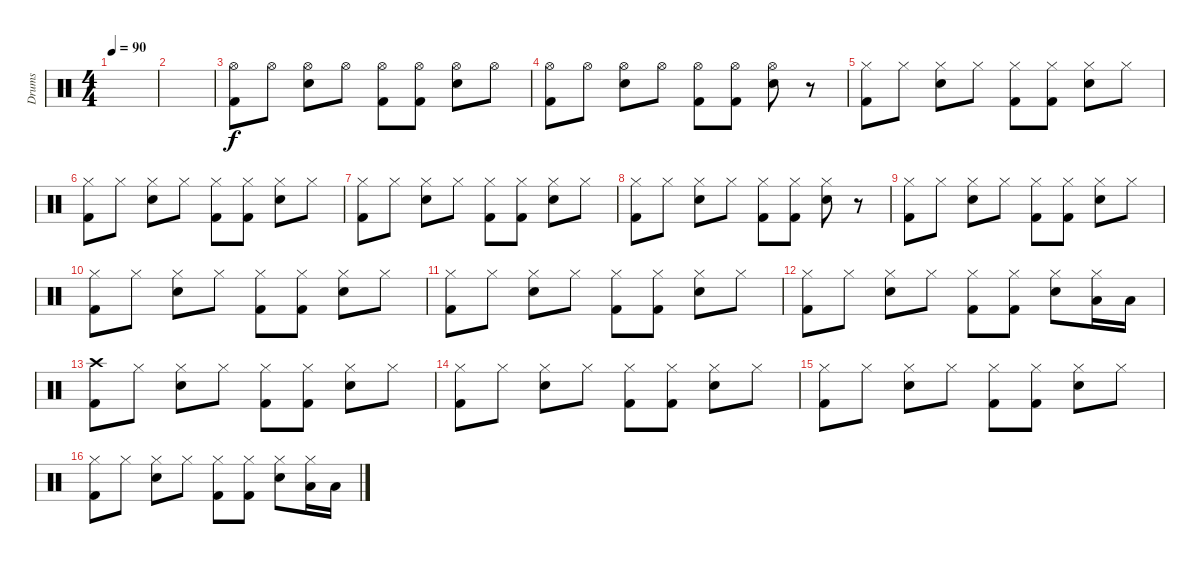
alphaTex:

\track ("Drums" "Drums") {instrument percussion}
\staff {score}
\articulation defaults
\ts (4 4)
\tempo 90
\clef neutral
\ks c
|
|
("Hi-Hat (open)" "Kick (hit) 2").8 "Hi-Hat (open)".8 ("Hi-Hat (open)" "Snare (hit) 2").8 "Hi-Hat (open)".8 ("Hi-Hat (open)" "Kick (hit) 2").8 ("Hi-Hat (open)" "Kick (hit) 2").8 ("Hi-Hat (open)" "Snare (hit) 2").8 "Hi-Hat (open)".8 |
("Hi-Hat (open)" "Kick (hit) 2").8 "Hi-Hat (open)".8 ("Hi-Hat (open)" "Snare (hit) 2").8 "Hi-Hat (open)".8 ("Hi-Hat (open)" "Kick (hit) 2").8 ("Hi-Hat (open)" "Kick (hit) 2").8 ("Hi-Hat (open)" "Snare (hit) 2").8 r.8 |
("Hi-Hat (closed)" "Kick (hit) 2").8 "Hi-Hat (closed)".8 ("Hi-Hat (closed)" "Snare (hit) 2").8 "Hi-Hat (closed)".8 ("Hi-Hat (closed)" "Kick (hit) 2").8 ("Hi-Hat (closed)" "Kick (hit) 2").8 ("Hi-Hat (closed)" "Snare (hit) 2").8 "Hi-Hat (closed)".8 |
("Hi-Hat (closed)" "Kick (hit) 2").8 "Hi-Hat (closed)".8 ("Hi-Hat (closed)" "Snare (hit) 2").8 "Hi-Hat (closed)".8 ("Hi-Hat (closed)" "Kick (hit) 2").8 ("Hi-Hat (closed)" "Kick (hit) 2").8 ("Hi-Hat (closed)" "Snare (hit) 2").8 "Hi-Hat (closed)".8 |
("Hi-Hat (closed)" "Kick (hit) 2").8 "Hi-Hat (closed)".8 ("Hi-Hat (closed)" "Snare (hit) 2").8 "Hi-Hat (closed)".8 ("Hi-Hat (closed)" "Kick (hit) 2").8 ("Hi-Hat (closed)" "Kick (hit) 2").8 ("Hi-Hat (closed)" "Snare (hit) 2").8 "Hi-Hat (closed)".8 |
("Hi-Hat (closed)" "Kick (hit) 2").8 "Hi-Hat (closed)".8 ("Hi-Hat (closed)" "Snare (hit) 2").8 "Hi-Hat (closed)".8 ("Hi-Hat (closed)" "Kick (hit) 2").8 ("Hi-Hat (closed)" "Kick (hit) 2").8 ("Hi-Hat (closed)" "Snare (hit) 2").8 r.8 |
("Hi-Hat (closed)" "Kick (hit) 2").8 "Hi-Hat (closed)".8 ("Hi-Hat (closed)" "Snare (hit) 2").8 "Hi-Hat (closed)".8 ("Hi-Hat (closed)" "Kick (hit) 2").8 ("Hi-Hat (closed)" "Kick (hit) 2").8 ("Hi-Hat (closed)" "Snare (hit) 2").8 "Hi-Hat (closed)".8 |
("Hi-Hat (closed)" "Kick (hit) 2").8 "Hi-Hat (closed)".8 ("Hi-Hat (closed)" "Snare (hit) 2").8 "Hi-Hat (closed)".8 ("Hi-Hat (closed)" "Kick (hit) 2").8 ("Hi-Hat (closed)" "Kick (hit) 2").8 ("Hi-Hat (closed)" "Snare (hit) 2").8 "Hi-Hat (closed)".8 |
("Hi-Hat (closed)" "Kick (hit) 2").8 "Hi-Hat (closed)".8 ("Hi-Hat (closed)" "Snare (hit) 2").8 "Hi-Hat (closed)".8 ("Hi-Hat (closed)" "Kick (hit) 2").8 ("Hi-Hat (closed)" "Kick (hit) 2").8 ("Hi-Hat (closed)" "Snare (hit) 2").8 "Hi-Hat (closed)".8 |
("Hi-Hat (closed)" "Kick (hit) 2").8 "Hi-Hat (closed)".8 ("Hi-Hat (closed)" "Snare (hit) 2").8 "Hi-Hat (closed)".8 ("Hi-Hat (closed)" "Kick (hit) 2").8 ("Hi-Hat (closed)" "Kick (hit) 2").8 ("Hi-Hat (closed)" "Snare (hit) 2").8 ("Hi-Hat (closed)" "Low Tom (hit)").16 "Low Tom (hit)".16 |
("Crash high (hit)" "Kick (hit) 2").8 "Hi-Hat (closed)".8 ("Hi-Hat (closed)" "Snare (hit) 2").8 "Hi-Hat (closed)".8 ("Hi-Hat (closed)" "Kick (hit) 2").8 ("Hi-Hat (closed)" "Kick (hit) 2").8 ("Hi-Hat (closed)" "Snare (hit) 2").8 "Hi-Hat (closed)".8 |
("Hi-Hat (closed)" "Kick (hit) 2").8 "Hi-Hat (closed)".8 ("Hi-Hat (closed)" "Snare (hit) 2").8 "Hi-Hat (closed)".8 ("Hi-Hat (closed)" "Kick (hit) 2").8 ("Hi-Hat (closed)" "Kick (hit) 2").8 ("Hi-Hat (closed)" "Snare (hit) 2").8 "Hi-Hat (closed)".8 |
("Hi-Hat (closed)" "Kick (hit) 2").8 "Hi-Hat (closed)".8 ("Hi-Hat (closed)" "Snare (hit) 2").8 "Hi-Hat (closed)".8 ("Hi-Hat (closed)" "Kick (hit) 2").8 ("Hi-Hat (closed)" "Kick (hit) 2").8 ("Hi-Hat (closed)" "Snare (hit) 2").8 "Hi-Hat (closed)".8 |
("Hi-Hat (closed)" "Kick (hit) 2").8 "Hi-Hat (closed)".8 ("Hi-Hat (closed)" "Snare (hit) 2").8 "Hi-Hat (closed)".8 ("Hi-Hat (closed)" "Kick (hit) 2").8 ("Hi-Hat (closed)" "Kick (hit) 2").8 ("Hi-Hat (closed)" "Snare (hit) 2").8 ("Hi-Hat (closed)" "Low Tom (hit)").16 "Low Tom (hit)".16
